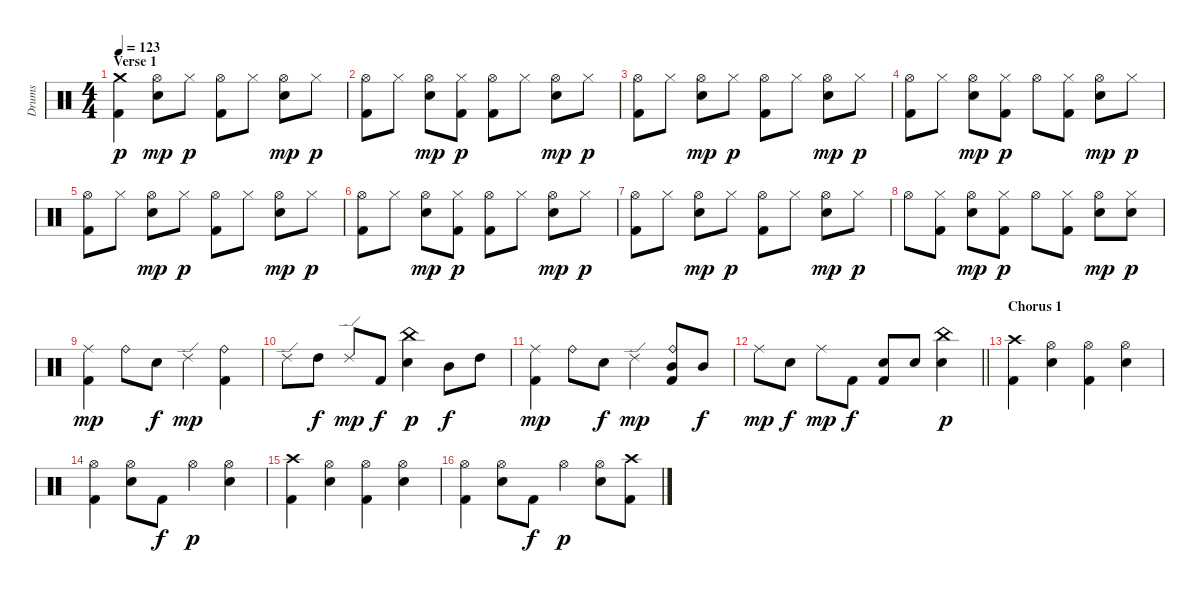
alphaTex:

\track ("Drums" "Drums") {instrument percussion}
\staff {score}
\articulation defaults
\ts (4 4)
\section ("" "Verse 1")
\tempo 123
\clef neutral
\ks c
("Kick (hit) 2" "Crash medium (hit)").4{dy p} ("Hi-Hat (open)" "Electric Snare (hit)").8{dy mp} "Hi-Hat (closed)".8{dy p} ("Hi-Hat (open)" "Kick (hit) 2").8 "Hi-Hat (closed)".8 ("Hi-Hat (open)" "Electric Snare (hit)").8{dy mp} "Hi-Hat (closed)".8{dy p} |
("Hi-Hat (open)" "Kick (hit) 2").8 "Hi-Hat (closed)".8 ("Hi-Hat (open)" "Electric Snare (hit)").8{dy mp} ("Kick (hit) 2" "Hi-Hat (closed)").8{dy p} ("Hi-Hat (open)" "Kick (hit) 2").8 "Hi-Hat (closed)".8 ("Hi-Hat (open)" "Electric Snare (hit)").8{dy mp} "Hi-Hat (closed)".8{dy p} |
("Hi-Hat (open)" "Kick (hit) 2").8 "Hi-Hat (closed)".8 ("Hi-Hat (open)" "Electric Snare (hit)").8{dy mp} "Hi-Hat (closed)".8{dy p} ("Hi-Hat (open)" "Kick (hit) 2").8 "Hi-Hat (closed)".8 ("Hi-Hat (open)" "Electric Snare (hit)").8{dy mp} "Hi-Hat (closed)".8{dy p} |
("Hi-Hat (open)" "Kick (hit) 2").8 "Hi-Hat (closed)".8 ("Hi-Hat (open)" "Electric Snare (hit)").8{dy mp} ("Kick (hit) 2" "Hi-Hat (closed)").8{dy p} "Hi-Hat (open)".8 ("Kick (hit) 2" "Hi-Hat (closed)").8 ("Hi-Hat (open)" "Electric Snare (hit)").8{dy mp} "Hi-Hat (closed)".8{dy p} |
("Hi-Hat (open)" "Kick (hit) 2").8 "Hi-Hat (closed)".8 ("Hi-Hat (open)" "Electric Snare (hit)").8{dy mp} "Hi-Hat (closed)".8{dy p} ("Hi-Hat (open)" "Kick (hit) 2").8 "Hi-Hat (closed)".8 ("Hi-Hat (open)" "Electric Snare (hit)").8{dy mp} "Hi-Hat (closed)".8{dy p} |
("Hi-Hat (open)" "Kick (hit) 2").8 "Hi-Hat (closed)".8 ("Hi-Hat (open)" "Electric Snare (hit)").8{dy mp} ("Kick (hit) 2" "Hi-Hat (closed)").8{dy p} ("Hi-Hat (open)" "Kick (hit) 2").8 "Hi-Hat (closed)".8 ("Hi-Hat (open)" "Electric Snare (hit)").8{dy mp} "Hi-Hat (closed)".8{dy p} |
("Hi-Hat (open)" "Kick (hit) 2").8 "Hi-Hat (closed)".8 ("Hi-Hat (open)" "Electric Snare (hit)").8{dy mp} "Hi-Hat (closed)".8{dy p} ("Hi-Hat (open)" "Kick (hit) 2").8 "Hi-Hat (closed)".8 ("Hi-Hat (open)" "Electric Snare (hit)").8{dy mp} "Hi-Hat (closed)".8{dy p} |
"Hi-Hat (open)".8 ("Kick (hit) 2" "Hi-Hat (closed)").8 ("Hi-Hat (open)" "Electric Snare (hit)").8{dy mp} ("Kick (hit) 2" "Hi-Hat (closed)").8{dy p} "Hi-Hat (open)".8 ("Kick (hit) 2" "Hi-Hat (closed)").8 ("Hi-Hat (open)" "Electric Snare (hit)").8{dy mp} ("Electric Snare (hit)" "Hi-Hat (closed)").8{dy p} |
("Kick (hit) 2" "Ride (middle)").4{dy mp} "Ride (bell)".8 "Electric Snare (hit)".8{dy f} "Ride (edge) 2".4{dy mp} ("Ride (bell)" "Kick (hit) 2").4 |
"Ride (edge) 2".8 "High Tom (hit)".8{dy f} "Ride (edge) 2".8{dy mp} "Kick (hit) 2".8{dy f} ("China (hit)" "Electric Snare (hit)").4{dy p} "Mid Tom (hit)".8{dy f} "High Tom (hit)".8 |
("Kick (hit) 2" "Ride (middle)").4{dy mp} "Ride (bell)".8 "Electric Snare (hit)".8{dy f} "Ride (edge) 2".4{dy mp} ("Ride (bell)" "Kick (hit) 2" "Mid Tom (hit)").8 "Mid Tom (hit)".8{dy f} |
\barLineRight lightlight "Ride (middle)".8{dy mp} "Electric Snare (hit)".8{dy f} "Ride (middle)".8{dy mp} "Kick (hit) 2".8{dy f}
("Electric Snare (hit)" "Kick (hit) 2").8 "Electric Snare (hit)".8 ("Electric Snare (hit)" "China (hit)").4{dy p} |
\section ("" "Chorus 1")
("Kick (hit) 2" "Crash high (hit)").4 ("Electric Snare (hit)" "Hi-Hat (open)").4 ("Kick (hit) 2" "Hi-Hat (open)").4 ("Electric Snare (hit)" "Hi-Hat (open)").4 |
("Kick (hit) 2" "Hi-Hat (open)").4 ("Electric Snare (hit)" "Hi-Hat (open)").8 "Kick (hit) 2".8{dy f} "Hi-Hat (open)".4{dy p} ("Electric Snare (hit)" "Hi-Hat (open)").4 |
("Kick (hit) 2" "Crash high (hit)").4 ("Electric Snare (hit)" "Hi-Hat (open)").4 ("Kick (hit) 2" "Hi-Hat (open)").4 ("Electric Snare (hit)" "Hi-Hat (open)").4 |
("Kick (hit) 2" "Hi-Hat (open)").4 ("Electric Snare (hit)" "Hi-Hat (open)").8 "Kick (hit) 2".8{dy f} "Hi-Hat (open)".4{dy p} ("Electric Snare (hit)" "Hi-Hat (open)").8 ("Kick (hit) 2" "Crash high (hit)").8
